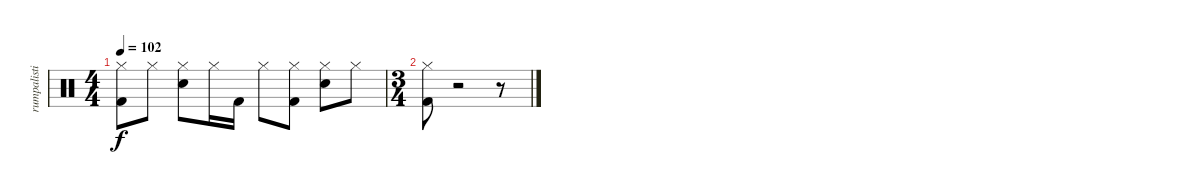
\track ("rumpalisti" "rumpalisti") {instrument percussion}
\staff {score}
\articulation defaults
\ts (4 4)
\tempo 102
\clef neutral
\ks c
("Kick (hit) 2" "Hi-Hat (closed)").8{dy f} "Hi-Hat (closed)".8 ("Hi-Hat (closed)" "Snare (hit) 2").8 "Hi-Hat (closed)".16 "Kick (hit) 2".16 "Hi-Hat (closed)".8 ("Kick (hit) 2" "Hi-Hat (closed)").8 ("Hi-Hat (closed)" "Snare (hit) 2").8 "Hi-Hat (closed)".8 |
\ts (3 4)
("Kick (hit) 2" "Hi-Hat (closed)").8 r.2 r.8
